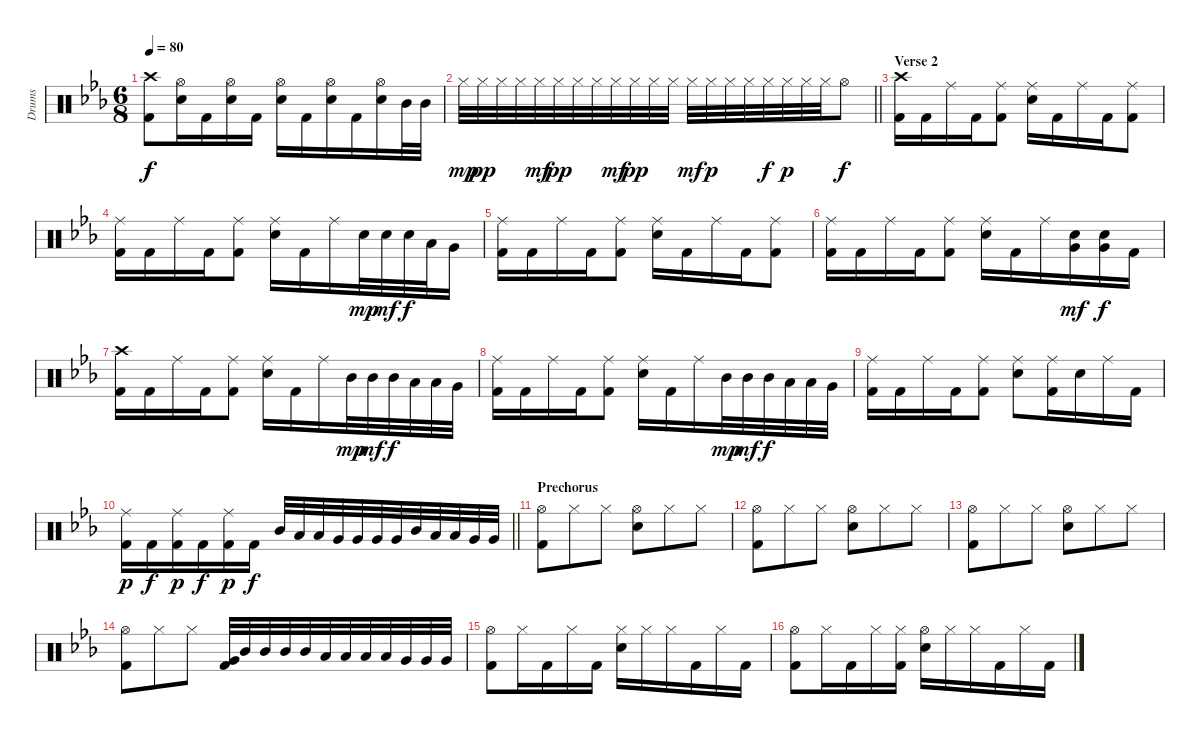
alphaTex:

\track ("Drums" "Drums") {instrument percussion}
\staff {score}
\articulation defaults
\ts (6 8)
\tempo 80
\clef neutral
\ks cminor
("Crash high (hit)" "Kick (hit) 2").8{dy f} ("Hi-Hat (open)" "Snare (hit) 2").16 "Kick (hit) 2".16 ("Hi-Hat (open)" "Snare (hit) 2").16 "Kick (hit) 2".16 ("Hi-Hat (open)" "Snare (hit) 2").16 "Kick (hit) 2".16 ("Hi-Hat (open)" "Snare (hit) 2").16 "Kick (hit) 2".16 ("Hi-Hat (open)" "Snare (hit) 2").16 "Mid Tom (hit)".32 "Mid Tom (hit)".32 |
\barLineRight lightlight "Hi-Hat (closed)".32{dy mp} "Hi-Hat (closed)".32{dy pp} "Hi-Hat (closed)".32 "Hi-Hat (closed)".32 "Hi-Hat (closed)".32{dy mf} "Hi-Hat (closed)".32{dy pp} "Hi-Hat (closed)".32 "Hi-Hat (closed)".32 "Hi-Hat (closed)".32{dy mf} "Hi-Hat (closed)".32{dy pp} "Hi-Hat (closed)".32 "Hi-Hat (closed)".32 "Hi-Hat (closed)".32{dy mf} "Hi-Hat (closed)".32{dy p} "Hi-Hat (closed)".32 "Hi-Hat (closed)".32 "Hi-Hat (closed)".32{dy f} "Hi-Hat (closed)".32{dy p} "Hi-Hat (closed)".32 "Hi-Hat (closed)".32 "Hi-Hat (open)".8{dy f}
|
\section ("" "Verse 2")
("Crash high (hit)" "Kick (hit) 2").16 "Kick (hit) 2".16 "Ride (middle)".16 "Kick (hit) 2".16 ("Ride (middle)" "Kick (hit) 2").8 ("Ride (middle)" "Snare (hit) 2").16 "Kick (hit) 2".16 "Ride (middle)".16 "Kick (hit) 2".16 ("Ride (middle)" "Kick (hit) 2").8 |
("Ride (middle)" "Kick (hit) 2").16 "Kick (hit) 2".16 "Ride (middle)".16 "Kick (hit) 2".16 ("Ride (middle)" "Kick (hit) 2").8 ("Ride (middle)" "Snare (hit) 2").16 "Kick (hit) 2".16 "Ride (middle)".16 "Snare (hit) 2".32{dy mp} "Snare (hit) 2".32{dy mf} "Snare (hit) 2".32{dy f} "Low Tom (hit)".32 "Very Low Tom (hit)".16 |
("Ride (middle)" "Kick (hit) 2").16 "Kick (hit) 2".16 "Ride (middle)".16 "Kick (hit) 2".16 ("Ride (middle)" "Kick (hit) 2").8 ("Ride (middle)" "Snare (hit) 2").16 "Kick (hit) 2".16 "Ride (middle)".16 "Kick (hit) 2".16 ("Ride (middle)" "Kick (hit) 2").8 |
("Ride (middle)" "Kick (hit) 2").16 "Kick (hit) 2".16 "Ride (middle)".16 "Kick (hit) 2".16 ("Ride (middle)" "Kick (hit) 2").8 ("Ride (middle)" "Snare (hit) 2").16 "Kick (hit) 2".16 "Ride (middle)".16 ("Snare (hit) 2" "Very Low Tom (hit)").16{dy mf} ("Snare (hit) 2" "Very Low Tom (hit)").16{dy f} "Kick (hit) 2".16 |
("Crash high (hit)" "Kick (hit) 2").16 "Kick (hit) 2".16 "Ride (middle)".16 "Kick (hit) 2".16 ("Ride (middle)" "Kick (hit) 2").8 ("Ride (middle)" "Snare (hit) 2").16 "Kick (hit) 2".16 "Ride (middle)".16 "Mid Tom (hit)".32{dy mp} "Mid Tom (hit)".32{dy mf} "Mid Tom (hit)".32{dy f} "Low Tom (hit)".32 "Low Tom (hit)".32 "Very Low Tom (hit)".32 |
("Ride (middle)" "Kick (hit) 2").16 "Kick (hit) 2".16 "Ride (middle)".16 "Kick (hit) 2".16 ("Ride (middle)" "Kick (hit) 2").8 ("Ride (middle)" "Snare (hit) 2").16 "Kick (hit) 2".16 "Ride (middle)".16 "Mid Tom (hit)".32{dy mp} "Mid Tom (hit)".32{dy mf} "Mid Tom (hit)".32{dy f} "Low Tom (hit)".32 "Low Tom (hit)".32 "Very Low Tom (hit)".32 |
("Ride (middle)" "Kick (hit) 2").16 "Kick (hit) 2".16 "Ride (middle)".16 "Kick (hit) 2".16 ("Ride (middle)" "Kick (hit) 2").8 ("Ride (middle)" "Snare (hit) 2").8 ("Ride (middle)" "Kick (hit) 2").16 "Snare (hit) 2".16 "Ride (middle)".16 "Kick (hit) 2".16 |
\barLineRight lightlight
("Ride (middle)" "Kick (hit) 2").16{dy p} "Kick (hit) 2".16{dy f} ("Ride (middle)" "Kick (hit) 2").16{dy p} "Kick (hit) 2".16{dy f} ("Ride (middle)" "Kick (hit) 2").16{dy p} "Kick (hit) 2".16{dy f} "Mid Tom (hit)".32 "Low Tom (hit)".32 "Low Tom (hit)".32 "Very Low Tom (hit)".32 "Very Low Tom (hit)".32 "Very Low Tom (hit)".32 "Very Low Tom (hit)".32 "Mid Tom (hit)".32 "Low Tom (hit)".32 "Low Tom (hit)".32 "Very Low Tom (hit)".32 "Very Low Tom (hit)".32 |
\section ("" "Prechorus")
("Hi-Hat (open)" "Kick (hit) 2").8 "Hi-Hat (closed)".8 "Hi-Hat (closed)".8 ("Hi-Hat (open)" "Snare (hit) 2").8 "Hi-Hat (closed)".8 "Hi-Hat (closed)".8 |
("Hi-Hat (open)" "Kick (hit) 2").8 "Hi-Hat (closed)".8 "Hi-Hat (closed)".8 ("Hi-Hat (open)" "Snare (hit) 2").8 "Hi-Hat (closed)".8 "Hi-Hat (closed)".8 |
("Hi-Hat (open)" "Kick (hit) 2").8 "Hi-Hat (closed)".8 "Hi-Hat (closed)".8 ("Hi-Hat (open)" "Snare (hit) 2").8 "Hi-Hat (closed)".8 "Hi-Hat (closed)".8 |
("Hi-Hat (open)" "Kick (hit) 2").8 "Hi-Hat (closed)".8 "Hi-Hat (closed)".8 ("Very Low Tom (hit)" "Kick (hit) 2").32 "Mid Tom (hit)".32 "Mid Tom (hit)".32 "Mid Tom (hit)".32 "Mid Tom (hit)".32 "Low Tom (hit)".32 "Low Tom (hit)".32 "Low Tom (hit)".32 "Low Tom (hit)".32 "Very Low Tom (hit)".32 "Very Low Tom (hit)".32 "Very Low Tom (hit)".32 |
("Hi-Hat (open)" "Kick (hit) 2").8 "Hi-Hat (closed)".16 "Kick (hit) 2".16 "Hi-Hat (closed)".16 "Kick (hit) 2".16 ("Hi-Hat (closed)" "Snare (hit) 2").16 "Hi-Hat (closed)".16 "Hi-Hat (closed)".16 "Kick (hit) 2".16 "Hi-Hat (closed)".16 "Kick (hit) 2".16 |
("Hi-Hat (open)" "Kick (hit) 2").8 "Hi-Hat (closed)".16 "Kick (hit) 2".16 "Hi-Hat (closed)".16 ("Hi-Hat (closed)" "Kick (hit) 2").16 ("Hi-Hat (open)" "Snare (hit) 2").16 "Hi-Hat (closed)".16 "Hi-Hat (closed)".16 "Kick (hit) 2".16 "Hi-Hat (closed)".16 "Kick (hit) 2".16
